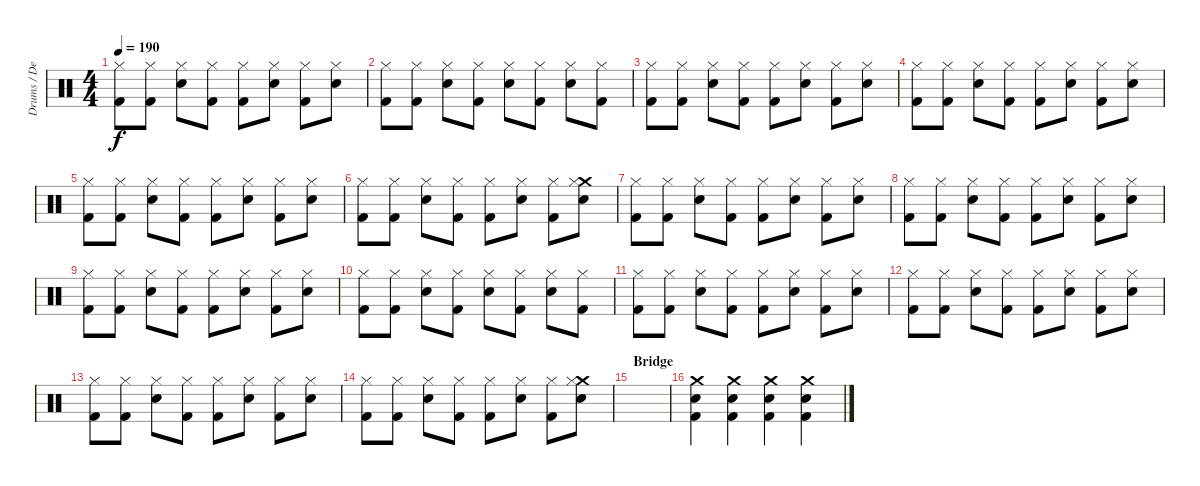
\track ("Drums / Dennis" "Drums / De") {instrument percussion}
\staff {score}
\articulation defaults
\ts (4 4)
\tempo 190
\clef neutral
\ks c
("Kick (hit) 2" "Hi-Hat (closed)").8{dy f} ("Kick (hit) 2" "Hi-Hat (closed)").8 ("Snare (hit) 2" "Hi-Hat (closed)").8 ("Kick (hit) 2" "Hi-Hat (closed)").8 ("Kick (hit) 2" "Hi-Hat (closed)").8 ("Snare (hit) 2" "Hi-Hat (closed)").8 ("Kick (hit) 2" "Hi-Hat (closed)").8 ("Snare (hit) 2" "Hi-Hat (closed)").8 |
("Kick (hit) 2" "Hi-Hat (closed)").8 ("Kick (hit) 2" "Hi-Hat (closed)").8 ("Snare (hit) 2" "Hi-Hat (closed)").8 ("Kick (hit) 2" "Hi-Hat (closed)").8 ("Snare (hit) 2" "Hi-Hat (closed)").8 ("Kick (hit) 2" "Hi-Hat (closed)").8 ("Snare (hit) 2" "Hi-Hat (closed)").8 ("Kick (hit) 2" "Hi-Hat (closed)").8 |
("Kick (hit) 2" "Hi-Hat (closed)").8 ("Kick (hit) 2" "Hi-Hat (closed)").8 ("Snare (hit) 2" "Hi-Hat (closed)").8 ("Kick (hit) 2" "Hi-Hat (closed)").8 ("Kick (hit) 2" "Hi-Hat (closed)").8 ("Snare (hit) 2" "Hi-Hat (closed)").8 ("Kick (hit) 2" "Hi-Hat (closed)").8 ("Snare (hit) 2" "Hi-Hat (closed)").8 |
("Kick (hit) 2" "Hi-Hat (closed)").8 ("Kick (hit) 2" "Hi-Hat (closed)").8 ("Snare (hit) 2" "Hi-Hat (closed)").8 ("Kick (hit) 2" "Hi-Hat (closed)").8 ("Kick (hit) 2" "Hi-Hat (closed)").8 ("Snare (hit) 2" "Hi-Hat (closed)").8 ("Kick (hit) 2" "Hi-Hat (closed)").8 ("Snare (hit) 2" "Hi-Hat (closed)").8 |
("Kick (hit) 2" "Hi-Hat (closed)").8 ("Kick (hit) 2" "Hi-Hat (closed)").8 ("Snare (hit) 2" "Hi-Hat (closed)").8 ("Kick (hit) 2" "Hi-Hat (closed)").8 ("Kick (hit) 2" "Hi-Hat (closed)").8 ("Snare (hit) 2" "Hi-Hat (closed)").8 ("Kick (hit) 2" "Hi-Hat (closed)").8 ("Snare (hit) 2" "Hi-Hat (closed)").8 |
("Kick (hit) 2" "Hi-Hat (closed)").8 ("Kick (hit) 2" "Hi-Hat (closed)").8 ("Snare (hit) 2" "Hi-Hat (closed)").8 ("Kick (hit) 2" "Hi-Hat (closed)").8 ("Kick (hit) 2" "Hi-Hat (closed)").8 ("Snare (hit) 2" "Hi-Hat (closed)").8 ("Kick (hit) 2" "Hi-Hat (closed)").8 ("Crash medium (hit)" "Snare (hit) 2" "Hi-Hat (closed)").8 |
("Kick (hit) 2" "Hi-Hat (closed)").8 ("Kick (hit) 2" "Hi-Hat (closed)").8 ("Snare (hit) 2" "Hi-Hat (closed)").8 ("Kick (hit) 2" "Hi-Hat (closed)").8 ("Kick (hit) 2" "Hi-Hat (closed)").8 ("Snare (hit) 2" "Hi-Hat (closed)").8 ("Kick (hit) 2" "Hi-Hat (closed)").8 ("Snare (hit) 2" "Hi-Hat (closed)").8 |
("Kick (hit) 2" "Hi-Hat (closed)").8 ("Kick (hit) 2" "Hi-Hat (closed)").8 ("Snare (hit) 2" "Hi-Hat (closed)").8 ("Kick (hit) 2" "Hi-Hat (closed)").8 ("Kick (hit) 2" "Hi-Hat (closed)").8 ("Snare (hit) 2" "Hi-Hat (closed)").8 ("Kick (hit) 2" "Hi-Hat (closed)").8 ("Snare (hit) 2" "Hi-Hat (closed)").8 |
("Kick (hit) 2" "Hi-Hat (closed)").8 ("Kick (hit) 2" "Hi-Hat (closed)").8 ("Snare (hit) 2" "Hi-Hat (closed)").8 ("Kick (hit) 2" "Hi-Hat (closed)").8 ("Kick (hit) 2" "Hi-Hat (closed)").8 ("Snare (hit) 2" "Hi-Hat (closed)").8 ("Kick (hit) 2" "Hi-Hat (closed)").8 ("Snare (hit) 2" "Hi-Hat (closed)").8 |
("Kick (hit) 2" "Hi-Hat (closed)").8 ("Kick (hit) 2" "Hi-Hat (closed)").8 ("Snare (hit) 2" "Hi-Hat (closed)").8 ("Kick (hit) 2" "Hi-Hat (closed)").8 ("Snare (hit) 2" "Hi-Hat (closed)").8 ("Kick (hit) 2" "Hi-Hat (closed)").8 ("Snare (hit) 2" "Hi-Hat (closed)").8 ("Kick (hit) 2" "Hi-Hat (closed)").8 |
("Kick (hit) 2" "Hi-Hat (closed)").8 ("Kick (hit) 2" "Hi-Hat (closed)").8 ("Snare (hit) 2" "Hi-Hat (closed)").8 ("Kick (hit) 2" "Hi-Hat (closed)").8 ("Kick (hit) 2" "Hi-Hat (closed)").8 ("Snare (hit) 2" "Hi-Hat (closed)").8 ("Kick (hit) 2" "Hi-Hat (closed)").8 ("Snare (hit) 2" "Hi-Hat (closed)").8 |
("Kick (hit) 2" "Hi-Hat (closed)").8 ("Kick (hit) 2" "Hi-Hat (closed)").8 ("Snare (hit) 2" "Hi-Hat (closed)").8 ("Kick (hit) 2" "Hi-Hat (closed)").8 ("Kick (hit) 2" "Hi-Hat (closed)").8 ("Snare (hit) 2" "Hi-Hat (closed)").8 ("Kick (hit) 2" "Hi-Hat (closed)").8 ("Snare (hit) 2" "Hi-Hat (closed)").8 |
("Kick (hit) 2" "Hi-Hat (closed)").8 ("Kick (hit) 2" "Hi-Hat (closed)").8 ("Snare (hit) 2" "Hi-Hat (closed)").8 ("Kick (hit) 2" "Hi-Hat (closed)").8 ("Kick (hit) 2" "Hi-Hat (closed)").8 ("Snare (hit) 2" "Hi-Hat (closed)").8 ("Kick (hit) 2" "Hi-Hat (closed)").8 ("Snare (hit) 2" "Hi-Hat (closed)").8 |
("Kick (hit) 2" "Hi-Hat (closed)").8 ("Kick (hit) 2" "Hi-Hat (closed)").8 ("Snare (hit) 2" "Hi-Hat (closed)").8 ("Kick (hit) 2" "Hi-Hat (closed)").8 ("Kick (hit) 2" "Hi-Hat (closed)").8 ("Snare (hit) 2" "Hi-Hat (closed)").8 ("Kick (hit) 2" "Hi-Hat (closed)").8 ("Crash medium (hit)" "Snare (hit) 2" "Hi-Hat (closed)").8 |
\section ("" "Bridge")
|
("Crash medium (hit)" "Snare (hit) 2" "Kick (hit) 2").4 ("Crash medium (hit)" "Snare (hit) 2" "Kick (hit) 2").4 ("Crash medium (hit)" "Snare (hit) 2" "Kick (hit) 2").4 ("Crash medium (hit)" "Snare (hit) 2" "Kick (hit) 2").4
